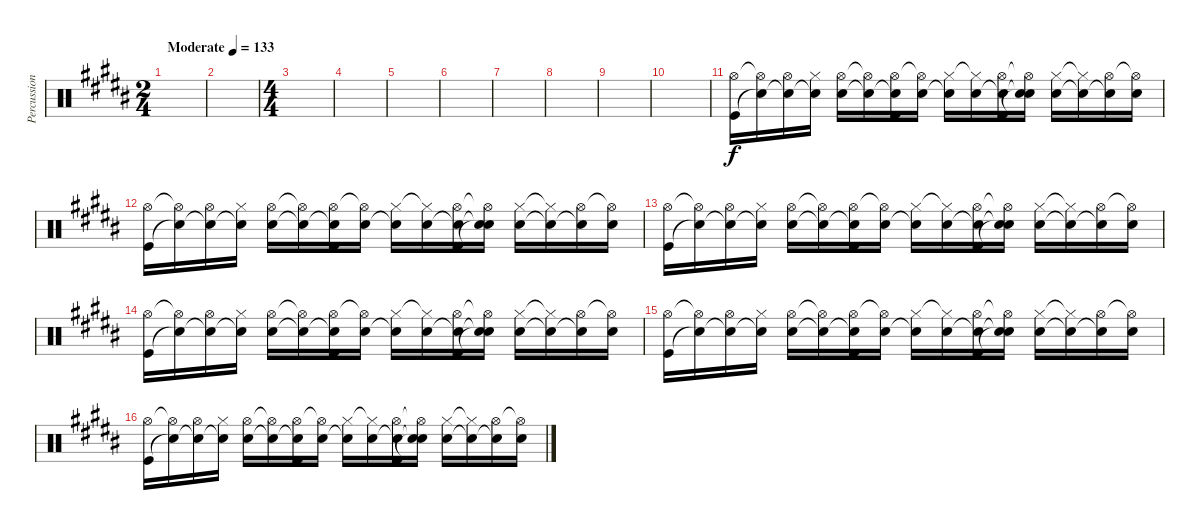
\track ("Percussion" "Percussion") {instrument percussion}
\staff {score}
\articulation defaults
\ts (2 4)
\tempo (133 "Moderate")
\clef neutral
\ks b
|
|
\ts (4 4)
|
|
|
|
|
|
|
|
("Hi-Hat (open)" "Kick (hit)").16 ("Hi-Hat (open)"{t} "Snare (hit)"{t}).16 ("Hi-Hat (open)" "Snare (hit)"{t}).16 ("Hi-Hat (closed)" "Snare (hit)"{t}).16 ("Hi-Hat (open)" "Electric Snare (hit)").16 ("Hi-Hat (open)"{t} "Snare (hit)"{t}).16 ("Hi-Hat (open)" "Snare (hit)"{t} "Kick (hit)").16 ("Hi-Hat (open)"{t} "Electric Snare (hit)").16 ("Hi-Hat (closed)" "Snare (hit)"{t}).16 ("Hi-Hat (closed)"{t} "Electric Snare (hit)").16 ("Hi-Hat (open)" "Electric Snare (hit)"{t} "Kick (hit)").16 ("Hi-Hat (open)"{t} "Snare (hit)"{t} "Snare (hit)"{t}).16 ("Hi-Hat (closed)" "Electric Snare (hit)").16 ("Hi-Hat (closed)"{t} "Snare (hit)"{t}).16 ("Hi-Hat (open)" "Snare (hit)"{t}).16 ("Hi-Hat (open)"{t} "Electric Snare (hit)").16 |
("Hi-Hat (open)" "Kick (hit)").16 ("Hi-Hat (open)"{t} "Snare (hit)"{t}).16 ("Hi-Hat (open)" "Snare (hit)"{t}).16 ("Hi-Hat (closed)" "Snare (hit)"{t}).16 ("Hi-Hat (open)" "Electric Snare (hit)").16 ("Hi-Hat (open)"{t} "Snare (hit)"{t}).16 ("Hi-Hat (open)" "Snare (hit)"{t} "Kick (hit)").16 ("Hi-Hat (open)"{t} "Electric Snare (hit)").16 ("Hi-Hat (closed)" "Snare (hit)"{t}).16 ("Hi-Hat (closed)"{t} "Electric Snare (hit)").16 ("Hi-Hat (open)" "Electric Snare (hit)"{t} "Kick (hit)").16 ("Hi-Hat (open)"{t} "Snare (hit)"{t} "Snare (hit)"{t}).16 ("Hi-Hat (closed)" "Electric Snare (hit)").16 ("Hi-Hat (closed)"{t} "Snare (hit)"{t}).16 ("Hi-Hat (open)" "Snare (hit)"{t}).16 ("Hi-Hat (open)"{t} "Electric Snare (hit)").16 |
("Hi-Hat (open)" "Kick (hit)").16 ("Hi-Hat (open)"{t} "Snare (hit)"{t}).16 ("Hi-Hat (open)" "Snare (hit)"{t}).16 ("Hi-Hat (closed)" "Snare (hit)"{t}).16 ("Hi-Hat (open)" "Electric Snare (hit)").16 ("Hi-Hat (open)"{t} "Snare (hit)"{t}).16 ("Hi-Hat (open)" "Snare (hit)"{t} "Kick (hit)").16 ("Hi-Hat (open)"{t} "Electric Snare (hit)").16 ("Hi-Hat (closed)" "Snare (hit)"{t}).16 ("Hi-Hat (closed)"{t} "Electric Snare (hit)").16 ("Hi-Hat (open)" "Electric Snare (hit)"{t} "Kick (hit)").16 ("Hi-Hat (open)"{t} "Snare (hit)"{t} "Snare (hit)"{t}).16 ("Hi-Hat (closed)" "Electric Snare (hit)").16 ("Hi-Hat (closed)"{t} "Snare (hit)"{t}).16 ("Hi-Hat (open)" "Snare (hit)"{t}).16 ("Hi-Hat (open)"{t} "Electric Snare (hit)").16 |
("Hi-Hat (open)" "Kick (hit)").16 ("Hi-Hat (open)"{t} "Snare (hit)"{t}).16 ("Hi-Hat (open)" "Snare (hit)"{t}).16 ("Hi-Hat (closed)" "Snare (hit)"{t}).16 ("Hi-Hat (open)" "Electric Snare (hit)").16 ("Hi-Hat (open)"{t} "Snare (hit)"{t}).16 ("Hi-Hat (open)" "Snare (hit)"{t} "Kick (hit)").16 ("Hi-Hat (open)"{t} "Electric Snare (hit)").16 ("Hi-Hat (closed)" "Snare (hit)"{t}).16 ("Hi-Hat (closed)"{t} "Electric Snare (hit)").16 ("Hi-Hat (open)" "Electric Snare (hit)"{t} "Kick (hit)").16 ("Hi-Hat (open)"{t} "Snare (hit)"{t} "Snare (hit)"{t}).16 ("Hi-Hat (closed)" "Electric Snare (hit)").16 ("Hi-Hat (closed)"{t} "Snare (hit)"{t}).16 ("Hi-Hat (open)" "Snare (hit)"{t}).16 ("Hi-Hat (open)"{t} "Electric Snare (hit)").16 |
("Hi-Hat (open)" "Kick (hit)").16 ("Hi-Hat (open)"{t} "Snare (hit)"{t}).16 ("Hi-Hat (open)" "Snare (hit)"{t}).16 ("Hi-Hat (closed)" "Snare (hit)"{t}).16 ("Hi-Hat (open)" "Electric Snare (hit)").16 ("Hi-Hat (open)"{t} "Snare (hit)"{t}).16 ("Hi-Hat (open)" "Snare (hit)"{t} "Kick (hit)").16 ("Hi-Hat (open)"{t} "Electric Snare (hit)").16 ("Hi-Hat (closed)" "Snare (hit)"{t}).16 ("Hi-Hat (closed)"{t} "Electric Snare (hit)").16 ("Hi-Hat (open)" "Electric Snare (hit)"{t} "Kick (hit)").16 ("Hi-Hat (open)"{t} "Snare (hit)"{t} "Snare (hit)"{t}).16 ("Hi-Hat (closed)" "Electric Snare (hit)").16 ("Hi-Hat (closed)"{t} "Snare (hit)"{t}).16 ("Hi-Hat (open)" "Snare (hit)"{t}).16 ("Hi-Hat (open)"{t} "Electric Snare (hit)").16 |
("Hi-Hat (open)" "Kick (hit)").16 ("Hi-Hat (open)"{t} "Snare (hit)"{t}).16 ("Hi-Hat (open)" "Snare (hit)"{t}).16 ("Hi-Hat (closed)" "Snare (hit)"{t}).16 ("Hi-Hat (open)" "Electric Snare (hit)").16 ("Hi-Hat (open)"{t} "Snare (hit)"{t}).16 ("Hi-Hat (open)" "Snare (hit)"{t} "Kick (hit)").16 ("Hi-Hat (open)"{t} "Electric Snare (hit)").16 ("Hi-Hat (closed)" "Snare (hit)"{t}).16 ("Hi-Hat (closed)"{t} "Electric Snare (hit)").16 ("Hi-Hat (open)" "Electric Snare (hit)"{t} "Kick (hit)").16 ("Hi-Hat (open)"{t} "Snare (hit)"{t} "Snare (hit)"{t}).16 ("Hi-Hat (closed)" "Electric Snare (hit)").16 ("Hi-Hat (closed)"{t} "Snare (hit)"{t}).16 ("Hi-Hat (open)" "Snare (hit)"{t}).16 ("Hi-Hat (open)"{t} "Electric Snare (hit)").16
